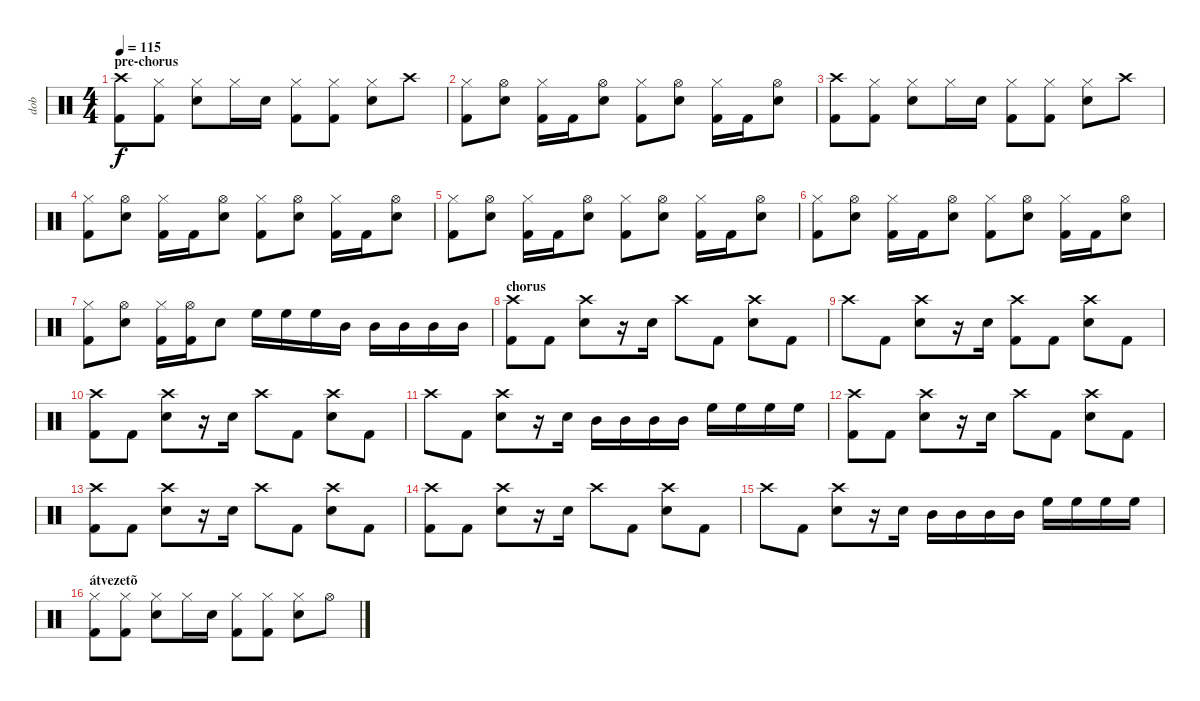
\track ("dob" "dob") {instrument percussion}
\staff {score}
\articulation defaults
\ts (4 4)
\section ("" "pre-chorus")
\tempo 115
\clef neutral
\ks c
("Crash high (hit)" "Kick (hit) 2").8{dy f} ("Hi-Hat (closed)" "Kick (hit) 2").8 ("Hi-Hat (closed)" "Snare (hit) 2").8 "Hi-Hat (closed)".16 "Snare (hit) 2".16 ("Hi-Hat (closed)" "Kick (hit) 2").8 ("Hi-Hat (closed)" "Kick (hit) 2").8 ("Hi-Hat (closed)" "Snare (hit) 2").8 "Crash high (hit)".8 |
("Hi-Hat (closed)" "Kick (hit) 2").8 ("Hi-Hat (open)" "Snare (hit) 2").8 ("Hi-Hat (closed)" "Kick (hit) 2").16 "Kick (hit) 2".16 ("Hi-Hat (open)" "Snare (hit) 2").8 ("Hi-Hat (closed)" "Kick (hit) 2").8 ("Hi-Hat (open)" "Snare (hit) 2").8 ("Hi-Hat (closed)" "Kick (hit) 2").16 "Kick (hit) 2".16 ("Hi-Hat (open)" "Snare (hit) 2").8 |
("Crash high (hit)" "Kick (hit) 2").8 ("Hi-Hat (closed)" "Kick (hit) 2").8 ("Hi-Hat (closed)" "Snare (hit) 2").8 "Hi-Hat (closed)".16 "Snare (hit) 2".16 ("Hi-Hat (closed)" "Kick (hit) 2").8 ("Hi-Hat (closed)" "Kick (hit) 2").8 ("Hi-Hat (closed)" "Snare (hit) 2").8 "Crash high (hit)".8 |
("Hi-Hat (closed)" "Kick (hit) 2").8 ("Hi-Hat (open)" "Snare (hit) 2").8 ("Hi-Hat (closed)" "Kick (hit) 2").16 "Kick (hit) 2".16 ("Hi-Hat (open)" "Snare (hit) 2").8 ("Hi-Hat (closed)" "Kick (hit) 2").8 ("Hi-Hat (open)" "Snare (hit) 2").8 ("Hi-Hat (closed)" "Kick (hit) 2").16 "Kick (hit) 2".16 ("Hi-Hat (open)" "Snare (hit) 2").8 |
("Hi-Hat (closed)" "Kick (hit) 2").8 ("Hi-Hat (open)" "Snare (hit) 2").8 ("Hi-Hat (closed)" "Kick (hit) 2").16 "Kick (hit) 2".16 ("Hi-Hat (open)" "Snare (hit) 2").8 ("Hi-Hat (closed)" "Kick (hit) 2").8 ("Hi-Hat (open)" "Snare (hit) 2").8 ("Hi-Hat (closed)" "Kick (hit) 2").16 "Kick (hit) 2".16 ("Hi-Hat (open)" "Snare (hit) 2").8 |
("Hi-Hat (closed)" "Kick (hit) 2").8 ("Hi-Hat (open)" "Snare (hit) 2").8 ("Hi-Hat (closed)" "Kick (hit) 2").16 "Kick (hit) 2".16 ("Hi-Hat (open)" "Snare (hit) 2").8 ("Hi-Hat (closed)" "Kick (hit) 2").8 ("Hi-Hat (open)" "Snare (hit) 2").8 ("Hi-Hat (closed)" "Kick (hit) 2").16 "Kick (hit) 2".16 ("Hi-Hat (open)" "Snare (hit) 2").8 |
("Hi-Hat (closed)" "Kick (hit) 2").8 ("Hi-Hat (open)" "Snare (hit) 2").8 ("Hi-Hat (closed)" "Kick (hit) 2").16 ("Hi-Hat (open)" "Kick (hit) 2").16 "Snare (hit) 2".8 "High Floor Tom (hit)".16 "High Floor Tom (hit)".16 "High Floor Tom (hit)".16 "Mid Tom (hit)".16 "Mid Tom (hit)".16 "Mid Tom (hit)".16 "Mid Tom (hit)".16 "Mid Tom (hit)".16 |
\section ("" "chorus")
("Crash high (hit)" "Kick (hit) 2").8 "Kick (hit) 2".8 ("Crash high (hit)" "Snare (hit) 2").8 r.16 "Snare (hit) 2".16 "Crash high (hit)".8 "Kick (hit) 2".8 ("Crash high (hit)" "Snare (hit) 2").8 "Kick (hit) 2".8 |
"Crash high (hit)".8 "Kick (hit) 2".8 ("Crash high (hit)" "Snare (hit) 2").8 r.16 "Snare (hit) 2".16 ("Crash high (hit)" "Kick (hit) 2").8 "Kick (hit) 2".8 ("Crash high (hit)" "Snare (hit) 2").8 "Kick (hit) 2".8 |
("Crash high (hit)" "Kick (hit) 2").8 "Kick (hit) 2".8 ("Crash high (hit)" "Snare (hit) 2").8 r.16 "Snare (hit) 2".16 "Crash high (hit)".8 "Kick (hit) 2".8 ("Crash high (hit)" "Snare (hit) 2").8 "Kick (hit) 2".8 |
"Crash high (hit)".8 "Kick (hit) 2".8 ("Crash high (hit)" "Snare (hit) 2").8 r.16 "Snare (hit) 2".16 "Mid Tom (hit)".16 "Mid Tom (hit)".16 "Mid Tom (hit)".16 "Mid Tom (hit)".16 "High Floor Tom (hit)".16 "High Floor Tom (hit)".16 "High Floor Tom (hit)".16 "High Floor Tom (hit)".16 |
("Crash high (hit)" "Kick (hit) 2").8 "Kick (hit) 2".8 ("Crash high (hit)" "Snare (hit) 2").8 r.16 "Snare (hit) 2".16 "Crash high (hit)".8 "Kick (hit) 2".8 ("Crash high (hit)" "Snare (hit) 2").8 "Kick (hit) 2".8 |
("Crash high (hit)" "Kick (hit) 2").8 "Kick (hit) 2".8 ("Crash high (hit)" "Snare (hit) 2").8 r.16 "Snare (hit) 2".16 "Crash high (hit)".8 "Kick (hit) 2".8 ("Crash high (hit)" "Snare (hit) 2").8 "Kick (hit) 2".8 |
("Crash high (hit)" "Kick (hit) 2").8 "Kick (hit) 2".8 ("Crash high (hit)" "Snare (hit) 2").8 r.16 "Snare (hit) 2".16 "Crash high (hit)".8 "Kick (hit) 2".8 ("Crash high (hit)" "Snare (hit) 2").8 "Kick (hit) 2".8 |
"Crash high (hit)".8 "Kick (hit) 2".8 ("Crash high (hit)" "Snare (hit) 2").8 r.16 "Snare (hit) 2".16 "Mid Tom (hit)".16 "Mid Tom (hit)".16 "Mid Tom (hit)".16 "Mid Tom (hit)".16 "High Floor Tom (hit)".16 "High Floor Tom (hit)".16 "High Floor Tom (hit)".16 "High Floor Tom (hit)".16 |
\section ("" "átvezetõ")
("Hi-Hat (closed)" "Kick (hit) 2").8 ("Hi-Hat (closed)" "Kick (hit) 2").8 ("Hi-Hat (closed)" "Snare (hit) 2").8 "Hi-Hat (closed)".16 "Snare (hit) 2".16 ("Hi-Hat (closed)" "Kick (hit) 2").8 ("Hi-Hat (closed)" "Kick (hit) 2").8 ("Hi-Hat (closed)" "Snare (hit) 2").8 "Hi-Hat (open)".8
